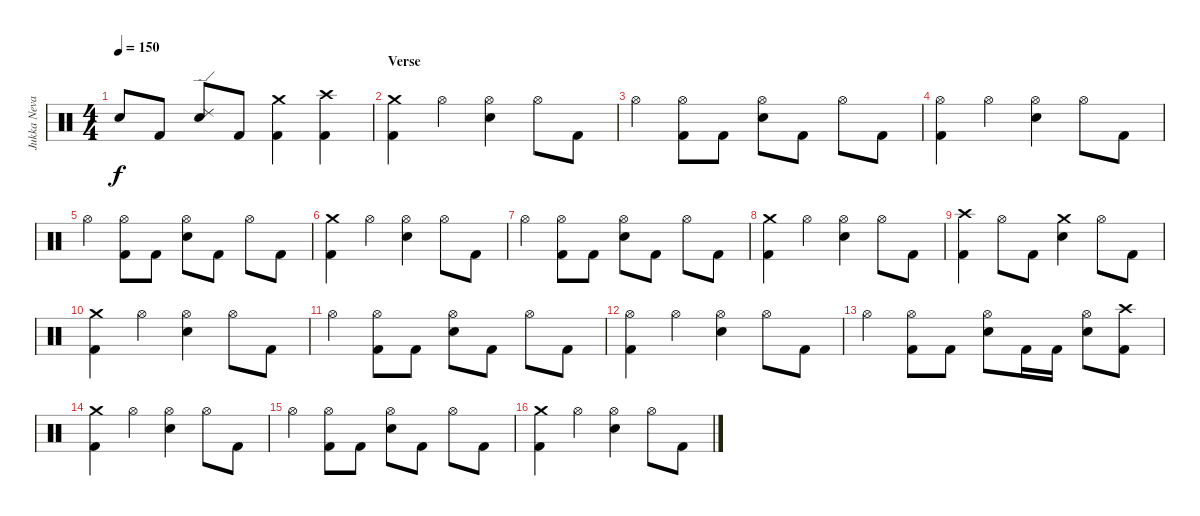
\track ("Jukka Nevalainen" "Jukka Neva") {instrument percussion}
\staff {score}
\articulation defaults
\ts (4 4)
\tempo 150
\clef neutral
\ks c "Snare (hit)"{t}.8{dy f} "Kick (hit) 2".8
("Ride (edge) 2" "Electric Snare (hit)").8 "Kick (hit) 2".8 ("Crash medium (hit)" "Kick (hit) 2").4 ("Crash high (hit)" "Kick (hit) 2").4 |
\section ("" "Verse")
("Crash medium (hit)" "Kick (hit) 2").4 "Hi-Hat (open)".4 ("Hi-Hat (open)" "Electric Snare (hit)").4 "Hi-Hat (open)".8 "Kick (hit) 2".8 |
"Hi-Hat (open)".4 ("Hi-Hat (open)" "Kick (hit) 2").8 "Kick (hit) 2".8 ("Hi-Hat (open)" "Electric Snare (hit)").8 "Kick (hit) 2".8 "Hi-Hat (open)".8 "Kick (hit) 2".8 |
("Hi-Hat (open)" "Kick (hit) 2").4 "Hi-Hat (open)".4 ("Hi-Hat (open)" "Electric Snare (hit)").4 "Hi-Hat (open)".8 "Kick (hit) 2".8 |
"Hi-Hat (open)".4 ("Hi-Hat (open)" "Kick (hit) 2").8 "Kick (hit) 2".8 ("Hi-Hat (open)" "Electric Snare (hit)").8 "Kick (hit) 2".8 "Hi-Hat (open)".8 "Kick (hit) 2".8 |
("Crash medium (hit)" "Kick (hit) 2").4 "Hi-Hat (open)".4 ("Hi-Hat (open)" "Electric Snare (hit)").4 "Hi-Hat (open)".8 "Kick (hit) 2".8 |
"Hi-Hat (open)".4 ("Hi-Hat (open)" "Kick (hit) 2").8 "Kick (hit) 2".8 ("Hi-Hat (open)" "Electric Snare (hit)").8 "Kick (hit) 2".8 "Hi-Hat (open)".8 "Kick (hit) 2".8 |
("Crash medium (hit)" "Kick (hit) 2").4 "Hi-Hat (open)".4 ("Hi-Hat (open)" "Electric Snare (hit)").4 "Hi-Hat (open)".8 "Kick (hit) 2".8 |
("Crash high (hit)" "Kick (hit) 2").4 "Hi-Hat (open)".8 "Kick (hit) 2".8 ("Crash medium (hit)" "Electric Snare (hit)").4 "Hi-Hat (open)".8 "Kick (hit) 2".8 |
("Crash medium (hit)" "Kick (hit) 2").4 "Hi-Hat (open)".4 ("Hi-Hat (open)" "Electric Snare (hit)").4 "Hi-Hat (open)".8 "Kick (hit) 2".8 |
"Hi-Hat (open)".4 ("Hi-Hat (open)" "Kick (hit) 2").8 "Kick (hit) 2".8 ("Hi-Hat (open)" "Electric Snare (hit)").8 "Kick (hit) 2".8 "Hi-Hat (open)".8 "Kick (hit) 2".8 |
("Hi-Hat (open)" "Kick (hit) 2").4 "Hi-Hat (open)".4 ("Hi-Hat (open)" "Electric Snare (hit)").4 "Hi-Hat (open)".8 "Kick (hit) 2".8 |
"Hi-Hat (open)".4 ("Hi-Hat (open)" "Kick (hit) 2").8 "Kick (hit) 2".8 ("Hi-Hat (open)" "Electric Snare (hit)").8 "Kick (hit) 2".16 "Kick (hit) 2".16 ("Hi-Hat (open)" "Electric Snare (hit)").8 ("Crash high (hit)" "Kick (hit) 2").8 |
("Crash medium (hit)" "Kick (hit) 2").4 "Hi-Hat (open)".4 ("Hi-Hat (open)" "Electric Snare (hit)").4 "Hi-Hat (open)".8 "Kick (hit) 2".8 |
"Hi-Hat (open)".4 ("Hi-Hat (open)" "Kick (hit) 2").8 "Kick (hit) 2".8 ("Hi-Hat (open)" "Electric Snare (hit)").8 "Kick (hit) 2".8 "Hi-Hat (open)".8 "Kick (hit) 2".8 |
("Crash medium (hit)" "Kick (hit) 2").4 "Hi-Hat (open)".4 ("Hi-Hat (open)" "Electric Snare (hit)").4 "Hi-Hat (open)".8 "Kick (hit) 2".8
